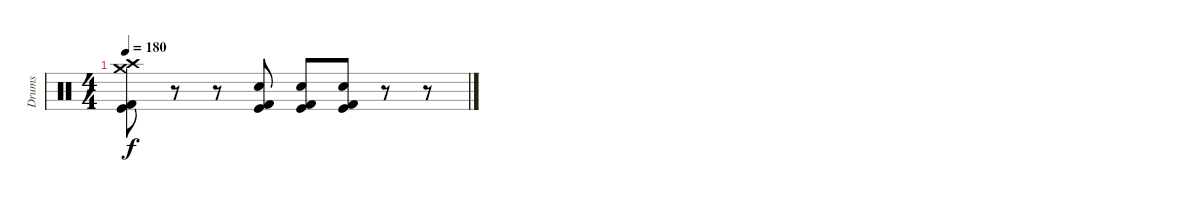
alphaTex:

\track ("Drums" "Drums") {instrument percussion}
\staff {score}
\articulation defaults
\ts (4 4)
\tempo 180
\clef neutral
\ks c
("Crash medium (hit)" "Crash high (hit)" "Kick (hit)" "Kick (hit) 2").8{dy f} r.8 r.8 ("Snare (hit) 2" "Kick (hit)" "Kick (hit) 2").8 ("Snare (hit) 2" "Kick (hit)" "Kick (hit) 2").8 ("Snare (hit) 2" "Kick (hit)" "Kick (hit) 2").8 r.8 r.8
